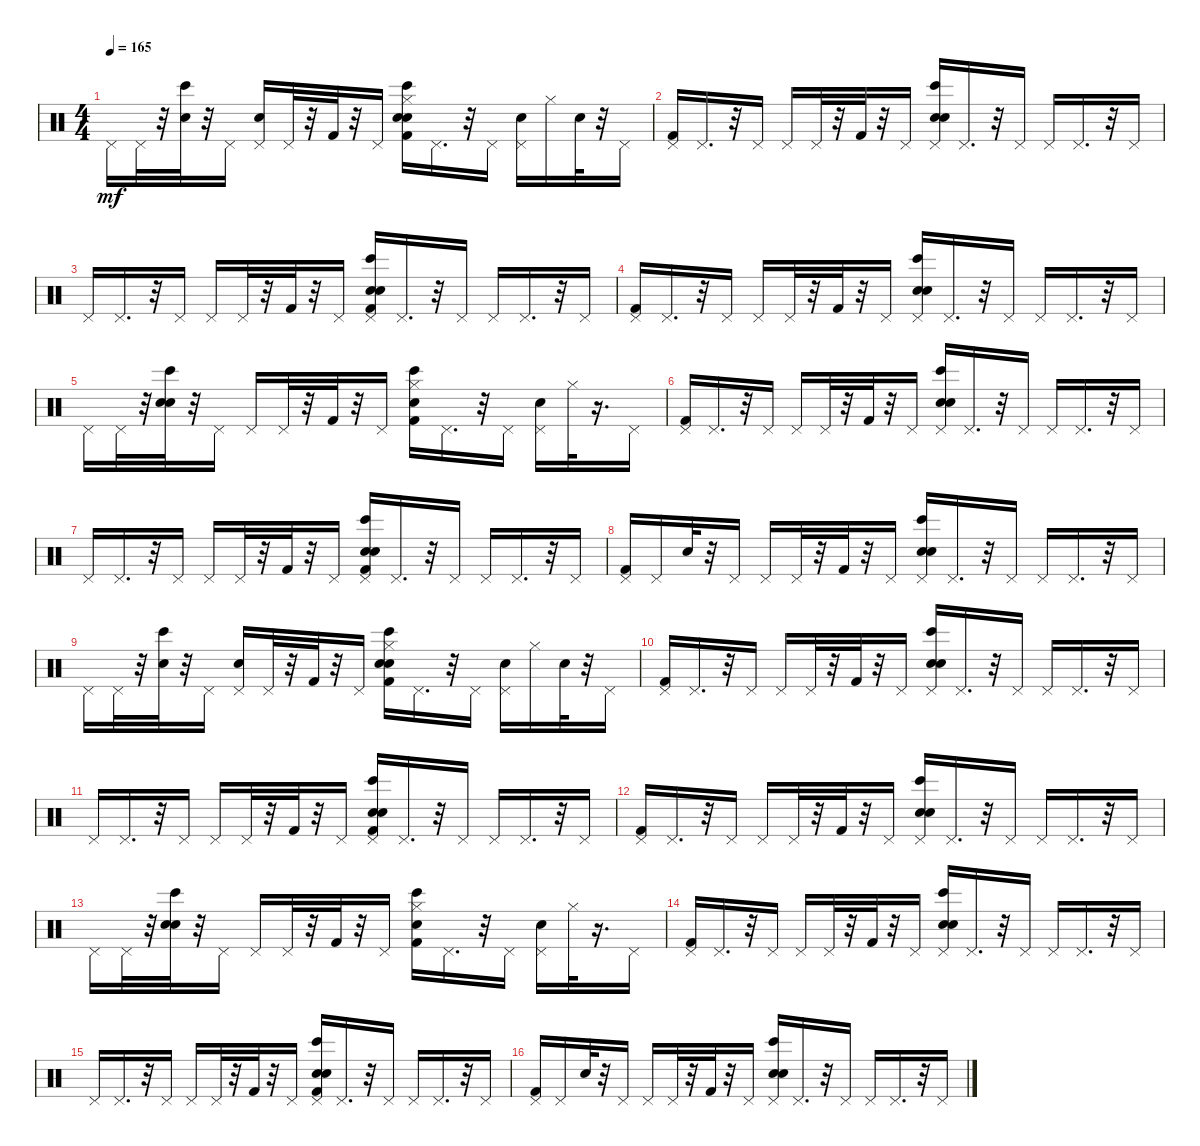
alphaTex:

\track (" " " ") {instrument percussion}
\staff {score}
\articulation defaults
\ts (4 4)
\tempo 165
\clef neutral
\ks c "Pedal Hi-Hat (hit)".16{dy mf} "Pedal Hi-Hat (hit)".32
r.32 ("Bongo High (hit)" "Hand Clap (hit)").32 r.32 "Pedal Hi-Hat (hit)".16 ("Electric Snare (hit)" "Pedal Hi-Hat (hit)").16 "Pedal Hi-Hat (hit)".32 r.32 "Kick (hit) 2".32 r.32 "Pedal Hi-Hat (hit)".16 ("Bongo High (hit)" "Kick (hit) 2" "Hand Clap (hit)" "Electric Snare (hit)" "Hi-Hat (closed)").16 "Pedal Hi-Hat (hit)".16{d} r.32 "Pedal Hi-Hat (hit)".16 ("Electric Snare (hit)" "Pedal Hi-Hat (hit)").16 "Hi-Hat (closed)".16 "Electric Snare (hit)".32 r.32 "Pedal Hi-Hat (hit)".16 |
("Kick (hit) 2" "Pedal Hi-Hat (hit)").16 "Pedal Hi-Hat (hit)".16{d} r.32 "Pedal Hi-Hat (hit)".16 "Pedal Hi-Hat (hit)".16 "Pedal Hi-Hat (hit)".32 r.32 "Kick (hit) 2".32 r.32 "Pedal Hi-Hat (hit)".16 ("Bongo High (hit)" "Hand Clap (hit)" "Electric Snare (hit)" "Pedal Hi-Hat (hit)").16 "Pedal Hi-Hat (hit)".16{d} r.32 "Pedal Hi-Hat (hit)".16 "Pedal Hi-Hat (hit)".16 "Pedal Hi-Hat (hit)".16{d} r.32 "Pedal Hi-Hat (hit)".16 |
"Pedal Hi-Hat (hit)".16 "Pedal Hi-Hat (hit)".16{d} r.32 "Pedal Hi-Hat (hit)".16 "Pedal Hi-Hat (hit)".16 "Pedal Hi-Hat (hit)".32 r.32 "Kick (hit) 2".32 r.32 "Pedal Hi-Hat (hit)".16 ("Bongo High (hit)" "Kick (hit) 2" "Hand Clap (hit)" "Electric Snare (hit)" "Pedal Hi-Hat (hit)").16 "Pedal Hi-Hat (hit)".16{d} r.32 "Pedal Hi-Hat (hit)".16 "Pedal Hi-Hat (hit)".16 "Pedal Hi-Hat (hit)".16{d} r.32 "Pedal Hi-Hat (hit)".16 |
("Kick (hit) 2" "Pedal Hi-Hat (hit)").16 "Pedal Hi-Hat (hit)".16{d} r.32 "Pedal Hi-Hat (hit)".16 "Pedal Hi-Hat (hit)".16 "Pedal Hi-Hat (hit)".32 r.32 "Kick (hit) 2".32 r.32 "Pedal Hi-Hat (hit)".16 ("Bongo High (hit)" "Hand Clap (hit)" "Electric Snare (hit)" "Pedal Hi-Hat (hit)").16 "Pedal Hi-Hat (hit)".16{d} r.32 "Pedal Hi-Hat (hit)".16 "Pedal Hi-Hat (hit)".16 "Pedal Hi-Hat (hit)".16{d} r.32 "Pedal Hi-Hat (hit)".16 |
"Pedal Hi-Hat (hit)".16 "Pedal Hi-Hat (hit)".32 r.32 ("Bongo High (hit)" "Hand Clap (hit)" "Electric Snare (hit)").32 r.32 "Pedal Hi-Hat (hit)".16 "Pedal Hi-Hat (hit)".16 "Pedal Hi-Hat (hit)".32 r.32 "Kick (hit) 2".32 r.32 "Pedal Hi-Hat (hit)".16 ("Bongo High (hit)" "Kick (hit) 2" "Hand Clap (hit)" "Hi-Hat (closed)").16 "Pedal Hi-Hat (hit)".16{d} r.32 "Pedal Hi-Hat (hit)".16 ("Electric Snare (hit)" "Pedal Hi-Hat (hit)").16 "Hi-Hat (closed)".32 r.16{d} "Pedal Hi-Hat (hit)".16 |
("Kick (hit) 2" "Pedal Hi-Hat (hit)").16 "Pedal Hi-Hat (hit)".16{d} r.32 "Pedal Hi-Hat (hit)".16 "Pedal Hi-Hat (hit)".16 "Pedal Hi-Hat (hit)".32 r.32 "Kick (hit) 2".32 r.32 "Pedal Hi-Hat (hit)".16 ("Bongo High (hit)" "Hand Clap (hit)" "Electric Snare (hit)" "Pedal Hi-Hat (hit)").16 "Pedal Hi-Hat (hit)".16{d} r.32 "Pedal Hi-Hat (hit)".16 "Pedal Hi-Hat (hit)".16 "Pedal Hi-Hat (hit)".16{d} r.32 "Pedal Hi-Hat (hit)".16 |
"Pedal Hi-Hat (hit)".16 "Pedal Hi-Hat (hit)".16{d} r.32 "Pedal Hi-Hat (hit)".16 "Pedal Hi-Hat (hit)".16 "Pedal Hi-Hat (hit)".32 r.32 "Kick (hit) 2".32 r.32 "Pedal Hi-Hat (hit)".16 ("Bongo High (hit)" "Kick (hit) 2" "Hand Clap (hit)" "Electric Snare (hit)" "Pedal Hi-Hat (hit)").16 "Pedal Hi-Hat (hit)".16{d} r.32 "Pedal Hi-Hat (hit)".16 "Pedal Hi-Hat (hit)".16 "Pedal Hi-Hat (hit)".16{d} r.32 "Pedal Hi-Hat (hit)".16 |
("Kick (hit) 2" "Pedal Hi-Hat (hit)").16 "Pedal Hi-Hat (hit)".16 "Electric Snare (hit)".32 r.32 "Pedal Hi-Hat (hit)".16 "Pedal Hi-Hat (hit)".16 "Pedal Hi-Hat (hit)".32 r.32 "Kick (hit) 2".32 r.32 "Pedal Hi-Hat (hit)".16 ("Bongo High (hit)" "Hand Clap (hit)" "Electric Snare (hit)" "Pedal Hi-Hat (hit)").16 "Pedal Hi-Hat (hit)".16{d} r.32 "Pedal Hi-Hat (hit)".16 "Pedal Hi-Hat (hit)".16 "Pedal Hi-Hat (hit)".16{d} r.32 "Pedal Hi-Hat (hit)".16 |
"Pedal Hi-Hat (hit)".16 "Pedal Hi-Hat (hit)".32 r.32 ("Bongo High (hit)" "Hand Clap (hit)").32 r.32 "Pedal Hi-Hat (hit)".16 ("Electric Snare (hit)" "Pedal Hi-Hat (hit)").16 "Pedal Hi-Hat (hit)".32 r.32 "Kick (hit) 2".32 r.32 "Pedal Hi-Hat (hit)".16 ("Bongo High (hit)" "Kick (hit) 2" "Hand Clap (hit)" "Electric Snare (hit)" "Hi-Hat (closed)").16 "Pedal Hi-Hat (hit)".16{d} r.32 "Pedal Hi-Hat (hit)".16 ("Electric Snare (hit)" "Pedal Hi-Hat (hit)").16 "Hi-Hat (closed)".16 "Electric Snare (hit)".32 r.32 "Pedal Hi-Hat (hit)".16 |
("Kick (hit) 2" "Pedal Hi-Hat (hit)").16 "Pedal Hi-Hat (hit)".16{d} r.32 "Pedal Hi-Hat (hit)".16 "Pedal Hi-Hat (hit)".16 "Pedal Hi-Hat (hit)".32 r.32 "Kick (hit) 2".32 r.32 "Pedal Hi-Hat (hit)".16 ("Bongo High (hit)" "Hand Clap (hit)" "Electric Snare (hit)" "Pedal Hi-Hat (hit)").16 "Pedal Hi-Hat (hit)".16{d} r.32 "Pedal Hi-Hat (hit)".16 "Pedal Hi-Hat (hit)".16 "Pedal Hi-Hat (hit)".16{d} r.32 "Pedal Hi-Hat (hit)".16 |
"Pedal Hi-Hat (hit)".16 "Pedal Hi-Hat (hit)".16{d} r.32 "Pedal Hi-Hat (hit)".16 "Pedal Hi-Hat (hit)".16 "Pedal Hi-Hat (hit)".32 r.32 "Kick (hit) 2".32 r.32 "Pedal Hi-Hat (hit)".16 ("Bongo High (hit)" "Kick (hit) 2" "Hand Clap (hit)" "Electric Snare (hit)" "Pedal Hi-Hat (hit)").16 "Pedal Hi-Hat (hit)".16{d} r.32 "Pedal Hi-Hat (hit)".16 "Pedal Hi-Hat (hit)".16 "Pedal Hi-Hat (hit)".16{d} r.32 "Pedal Hi-Hat (hit)".16 |
("Kick (hit) 2" "Pedal Hi-Hat (hit)").16 "Pedal Hi-Hat (hit)".16{d} r.32 "Pedal Hi-Hat (hit)".16 "Pedal Hi-Hat (hit)".16 "Pedal Hi-Hat (hit)".32 r.32 "Kick (hit) 2".32 r.32 "Pedal Hi-Hat (hit)".16 ("Bongo High (hit)" "Hand Clap (hit)" "Electric Snare (hit)" "Pedal Hi-Hat (hit)").16 "Pedal Hi-Hat (hit)".16{d} r.32 "Pedal Hi-Hat (hit)".16 "Pedal Hi-Hat (hit)".16 "Pedal Hi-Hat (hit)".16{d} r.32 "Pedal Hi-Hat (hit)".16 |
"Pedal Hi-Hat (hit)".16 "Pedal Hi-Hat (hit)".32 r.32 ("Bongo High (hit)" "Hand Clap (hit)" "Electric Snare (hit)").32 r.32 "Pedal Hi-Hat (hit)".16 "Pedal Hi-Hat (hit)".16 "Pedal Hi-Hat (hit)".32 r.32 "Kick (hit) 2".32 r.32 "Pedal Hi-Hat (hit)".16 ("Bongo High (hit)" "Kick (hit) 2" "Hand Clap (hit)" "Hi-Hat (closed)").16 "Pedal Hi-Hat (hit)".16{d} r.32 "Pedal Hi-Hat (hit)".16 ("Electric Snare (hit)" "Pedal Hi-Hat (hit)").16 "Hi-Hat (closed)".32 r.16{d} "Pedal Hi-Hat (hit)".16 |
("Kick (hit) 2" "Pedal Hi-Hat (hit)").16 "Pedal Hi-Hat (hit)".16{d} r.32 "Pedal Hi-Hat (hit)".16 "Pedal Hi-Hat (hit)".16 "Pedal Hi-Hat (hit)".32 r.32 "Kick (hit) 2".32 r.32 "Pedal Hi-Hat (hit)".16 ("Bongo High (hit)" "Hand Clap (hit)" "Electric Snare (hit)" "Pedal Hi-Hat (hit)").16 "Pedal Hi-Hat (hit)".16{d} r.32 "Pedal Hi-Hat (hit)".16 "Pedal Hi-Hat (hit)".16 "Pedal Hi-Hat (hit)".16{d} r.32 "Pedal Hi-Hat (hit)".16 |
"Pedal Hi-Hat (hit)".16 "Pedal Hi-Hat (hit)".16{d} r.32 "Pedal Hi-Hat (hit)".16 "Pedal Hi-Hat (hit)".16 "Pedal Hi-Hat (hit)".32 r.32 "Kick (hit) 2".32 r.32 "Pedal Hi-Hat (hit)".16 ("Bongo High (hit)" "Kick (hit) 2" "Hand Clap (hit)" "Electric Snare (hit)" "Pedal Hi-Hat (hit)").16 "Pedal Hi-Hat (hit)".16{d} r.32 "Pedal Hi-Hat (hit)".16 "Pedal Hi-Hat (hit)".16 "Pedal Hi-Hat (hit)".16{d} r.32 "Pedal Hi-Hat (hit)".16 |
("Kick (hit) 2" "Pedal Hi-Hat (hit)").16 "Pedal Hi-Hat (hit)".16 "Electric Snare (hit)".32 r.32 "Pedal Hi-Hat (hit)".16 "Pedal Hi-Hat (hit)".16 "Pedal Hi-Hat (hit)".32 r.32 "Kick (hit) 2".32 r.32 "Pedal Hi-Hat (hit)".16 ("Bongo High (hit)" "Hand Clap (hit)" "Electric Snare (hit)" "Pedal Hi-Hat (hit)").16 "Pedal Hi-Hat (hit)".16{d} r.32 "Pedal Hi-Hat (hit)".16 "Pedal Hi-Hat (hit)".16 "Pedal Hi-Hat (hit)".16{d} r.32 "Pedal Hi-Hat (hit)".16
